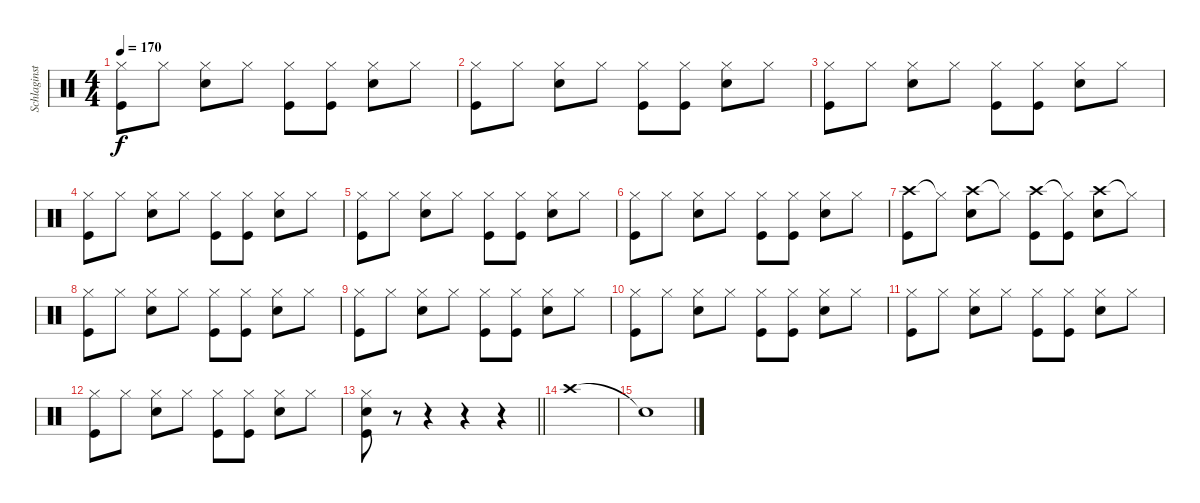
\track ("Schlaginstrumente - Auswahl" "Schlaginst") {instrument percussion}
\staff {score}
\articulation defaults
\ts (4 4)
\tempo 170
\clef neutral
\ks c
("Hi-Hat (closed)" "Kick (hit)").8{dy f} "Hi-Hat (closed)".8 ("Hi-Hat (closed)" "Electric Snare (hit)").8 "Hi-Hat (closed)".8 ("Hi-Hat (closed)" "Kick (hit)").8 ("Hi-Hat (closed)" "Kick (hit)").8 ("Hi-Hat (closed)" "Electric Snare (hit)").8 "Hi-Hat (closed)".8 |
("Hi-Hat (closed)" "Kick (hit)").8 "Hi-Hat (closed)".8 ("Hi-Hat (closed)" "Electric Snare (hit)").8 "Hi-Hat (closed)".8 ("Hi-Hat (closed)" "Kick (hit)").8 ("Hi-Hat (closed)" "Kick (hit)").8 ("Hi-Hat (closed)" "Electric Snare (hit)").8 "Hi-Hat (closed)".8 |
("Hi-Hat (closed)" "Kick (hit)").8 "Hi-Hat (closed)".8 ("Hi-Hat (closed)" "Electric Snare (hit)").8 "Hi-Hat (closed)".8 ("Hi-Hat (closed)" "Kick (hit)").8 ("Hi-Hat (closed)" "Kick (hit)").8 ("Hi-Hat (closed)" "Electric Snare (hit)").8 "Hi-Hat (closed)".8 |
("Hi-Hat (closed)" "Kick (hit)").8 "Hi-Hat (closed)".8 ("Hi-Hat (closed)" "Electric Snare (hit)").8 "Hi-Hat (closed)".8 ("Hi-Hat (closed)" "Kick (hit)").8 ("Hi-Hat (closed)" "Kick (hit)").8 ("Hi-Hat (closed)" "Electric Snare (hit)").8 "Hi-Hat (closed)".8 |
("Hi-Hat (closed)" "Kick (hit)").8 "Hi-Hat (closed)".8 ("Hi-Hat (closed)" "Electric Snare (hit)").8 "Hi-Hat (closed)".8 ("Hi-Hat (closed)" "Kick (hit)").8 ("Hi-Hat (closed)" "Kick (hit)").8 ("Hi-Hat (closed)" "Electric Snare (hit)").8 "Hi-Hat (closed)".8 |
("Hi-Hat (closed)" "Kick (hit)").8 "Hi-Hat (closed)".8 ("Hi-Hat (closed)" "Electric Snare (hit)").8 "Hi-Hat (closed)".8 ("Hi-Hat (closed)" "Kick (hit)").8 ("Hi-Hat (closed)" "Kick (hit)").8 ("Hi-Hat (closed)" "Electric Snare (hit)").8 "Hi-Hat (closed)".8 |
("Crash high (hit)" "Kick (hit)").8 "Hi-Hat (closed)"{t}.8 ("Crash high (hit)" "Electric Snare (hit)").8 "Hi-Hat (closed)"{t}.8 ("Crash high (hit)" "Kick (hit)").8 ("Hi-Hat (closed)"{t} "Kick (hit)").8 ("Crash high (hit)" "Electric Snare (hit)").8 "Hi-Hat (closed)"{t}.8 |
("Hi-Hat (closed)" "Kick (hit)").8 "Hi-Hat (closed)".8 ("Hi-Hat (closed)" "Electric Snare (hit)").8 "Hi-Hat (closed)".8 ("Hi-Hat (closed)" "Kick (hit)").8 ("Hi-Hat (closed)" "Kick (hit)").8 ("Hi-Hat (closed)" "Electric Snare (hit)").8 "Hi-Hat (closed)".8 |
("Hi-Hat (closed)" "Kick (hit)").8 "Hi-Hat (closed)".8 ("Hi-Hat (closed)" "Electric Snare (hit)").8 "Hi-Hat (closed)".8 ("Hi-Hat (closed)" "Kick (hit)").8 ("Hi-Hat (closed)" "Kick (hit)").8 ("Hi-Hat (closed)" "Electric Snare (hit)").8 "Hi-Hat (closed)".8 |
("Hi-Hat (closed)" "Kick (hit)").8 "Hi-Hat (closed)".8 ("Hi-Hat (closed)" "Electric Snare (hit)").8 "Hi-Hat (closed)".8 ("Hi-Hat (closed)" "Kick (hit)").8 ("Hi-Hat (closed)" "Kick (hit)").8 ("Hi-Hat (closed)" "Electric Snare (hit)").8 "Hi-Hat (closed)".8 |
("Hi-Hat (closed)" "Kick (hit)").8 "Hi-Hat (closed)".8 ("Hi-Hat (closed)" "Electric Snare (hit)").8 "Hi-Hat (closed)".8 ("Hi-Hat (closed)" "Kick (hit)").8 ("Hi-Hat (closed)" "Kick (hit)").8 ("Hi-Hat (closed)" "Electric Snare (hit)").8 "Hi-Hat (closed)".8 |
("Hi-Hat (closed)" "Kick (hit)").8 "Hi-Hat (closed)".8 ("Hi-Hat (closed)" "Electric Snare (hit)").8 "Hi-Hat (closed)".8 ("Hi-Hat (closed)" "Kick (hit)").8 ("Hi-Hat (closed)" "Kick (hit)").8 ("Hi-Hat (closed)" "Electric Snare (hit)").8 "Hi-Hat (closed)".8 |
\barLineRight lightlight
("Hi-Hat (closed)" "Electric Snare (hit)" "Kick (hit)").8 r.8 r.4 r.4 r.4 |
"Crash high (hit)".1 |
"Snare (hit)"{t}.1
